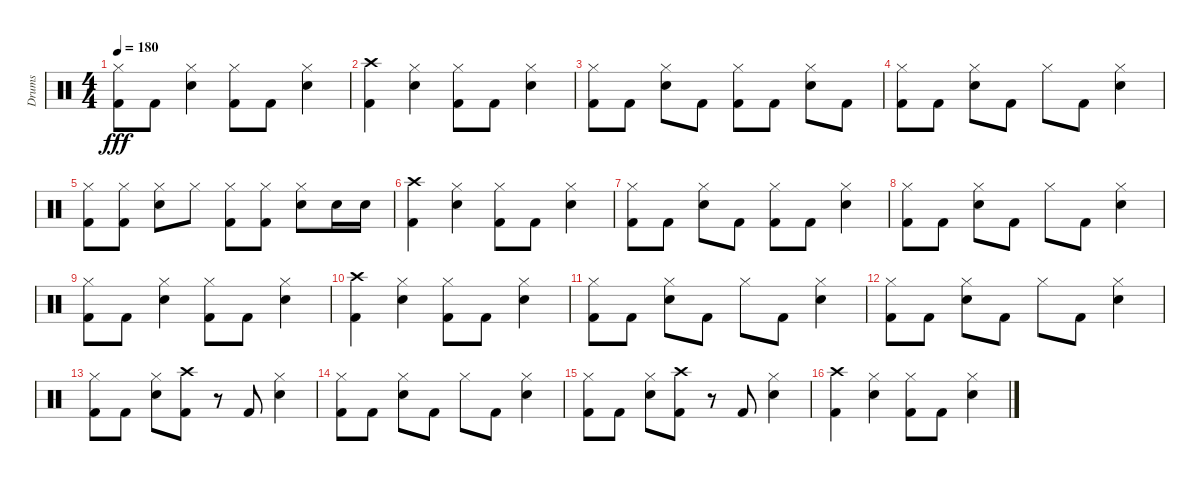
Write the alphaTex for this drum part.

\track ("Drums" "Drums") {instrument percussion}
\staff {score}
\articulation defaults
\ts (4 4)
\tempo 180
\clef neutral
\ks c
("Kick (hit) 2" "Hi-Hat (closed)").8{dy fff} "Kick (hit) 2".8 ("Snare (hit) 2" "Hi-Hat (closed)").4 ("Kick (hit) 2" "Hi-Hat (closed)").8 "Kick (hit) 2".8 ("Snare (hit) 2" "Hi-Hat (closed)").4 |
("Crash high (hit)" "Kick (hit) 2").4 ("Snare (hit) 2" "Hi-Hat (closed)").4 ("Kick (hit) 2" "Hi-Hat (closed)").8 "Kick (hit) 2".8 ("Snare (hit) 2" "Hi-Hat (closed)").4 |
("Kick (hit) 2" "Hi-Hat (closed)").8 "Kick (hit) 2".8 ("Snare (hit) 2" "Hi-Hat (closed)").8 "Kick (hit) 2".8 ("Kick (hit) 2" "Hi-Hat (closed)").8 "Kick (hit) 2".8 ("Snare (hit) 2" "Hi-Hat (closed)").8 "Kick (hit) 2".8 |
("Kick (hit) 2" "Hi-Hat (closed)").8 "Kick (hit) 2".8 ("Snare (hit) 2" "Hi-Hat (closed)").8 "Kick (hit) 2".8 "Hi-Hat (closed)".8 "Kick (hit) 2".8 ("Snare (hit) 2" "Hi-Hat (closed)").4 |
("Hi-Hat (closed)" "Kick (hit) 2").8 ("Hi-Hat (closed)" "Kick (hit) 2").8 ("Snare (hit) 2" "Hi-Hat (closed)").8 "Hi-Hat (closed)".8 ("Hi-Hat (closed)" "Kick (hit) 2").8 ("Hi-Hat (closed)" "Kick (hit) 2").8 ("Snare (hit) 2" "Hi-Hat (closed)").8 "Snare (hit) 2".16 "Snare (hit) 2".16 |
("Crash high (hit)" "Kick (hit) 2").4 ("Snare (hit) 2" "Hi-Hat (closed)").4 ("Kick (hit) 2" "Hi-Hat (closed)").8 "Kick (hit) 2".8 ("Snare (hit) 2" "Hi-Hat (closed)").4 |
("Kick (hit) 2" "Hi-Hat (closed)").8 "Kick (hit) 2".8 ("Snare (hit) 2" "Hi-Hat (closed)").8 "Kick (hit) 2".8 ("Kick (hit) 2" "Hi-Hat (closed)").8 "Kick (hit) 2".8 ("Snare (hit) 2" "Hi-Hat (closed)").4 |
("Kick (hit) 2" "Hi-Hat (closed)").8 "Kick (hit) 2".8 ("Snare (hit) 2" "Hi-Hat (closed)").8 "Kick (hit) 2".8 "Hi-Hat (closed)".8 "Kick (hit) 2".8 ("Snare (hit) 2" "Hi-Hat (closed)").4 |
("Hi-Hat (closed)" "Kick (hit) 2").8 "Kick (hit) 2".8 ("Snare (hit) 2" "Hi-Hat (closed)").4 ("Kick (hit) 2" "Hi-Hat (closed)").8 "Kick (hit) 2".8 ("Snare (hit) 2" "Hi-Hat (closed)").4 |
("Crash high (hit)" "Kick (hit) 2").4 ("Snare (hit) 2" "Hi-Hat (closed)").4 ("Kick (hit) 2" "Hi-Hat (closed)").8 "Kick (hit) 2".8 ("Snare (hit) 2" "Hi-Hat (closed)").4 |
("Kick (hit) 2" "Hi-Hat (closed)").8 "Kick (hit) 2".8 ("Snare (hit) 2" "Hi-Hat (closed)").8 "Kick (hit) 2".8 "Hi-Hat (closed)".8 "Kick (hit) 2".8 ("Snare (hit) 2" "Hi-Hat (closed)").4 |
("Kick (hit) 2" "Hi-Hat (closed)").8 "Kick (hit) 2".8 ("Snare (hit) 2" "Hi-Hat (closed)").8 "Kick (hit) 2".8 "Hi-Hat (closed)".8 "Kick (hit) 2".8 ("Snare (hit) 2" "Hi-Hat (closed)").4 |
("Kick (hit) 2" "Hi-Hat (closed)").8 "Kick (hit) 2".8 ("Snare (hit) 2" "Hi-Hat (closed)").8 ("Crash high (hit)" "Kick (hit) 2").8 r.8 "Kick (hit) 2".8 ("Snare (hit) 2" "Hi-Hat (closed)").4 |
("Kick (hit) 2" "Hi-Hat (closed)").8 "Kick (hit) 2".8 ("Snare (hit) 2" "Hi-Hat (closed)").8 "Kick (hit) 2".8 "Hi-Hat (closed)".8 "Kick (hit) 2".8 ("Snare (hit) 2" "Hi-Hat (closed)").4 |
("Kick (hit) 2" "Hi-Hat (closed)").8 "Kick (hit) 2".8 ("Snare (hit) 2" "Hi-Hat (closed)").8 ("Crash high (hit)" "Kick (hit) 2").8 r.8 "Kick (hit) 2".8 ("Snare (hit) 2" "Hi-Hat (closed)").4 |
("Crash high (hit)" "Kick (hit) 2").4 ("Hi-Hat (closed)" "Snare (hit) 2").4 ("Hi-Hat (closed)" "Kick (hit) 2").8 "Kick (hit) 2".8 ("Snare (hit) 2" "Hi-Hat (closed)").4
